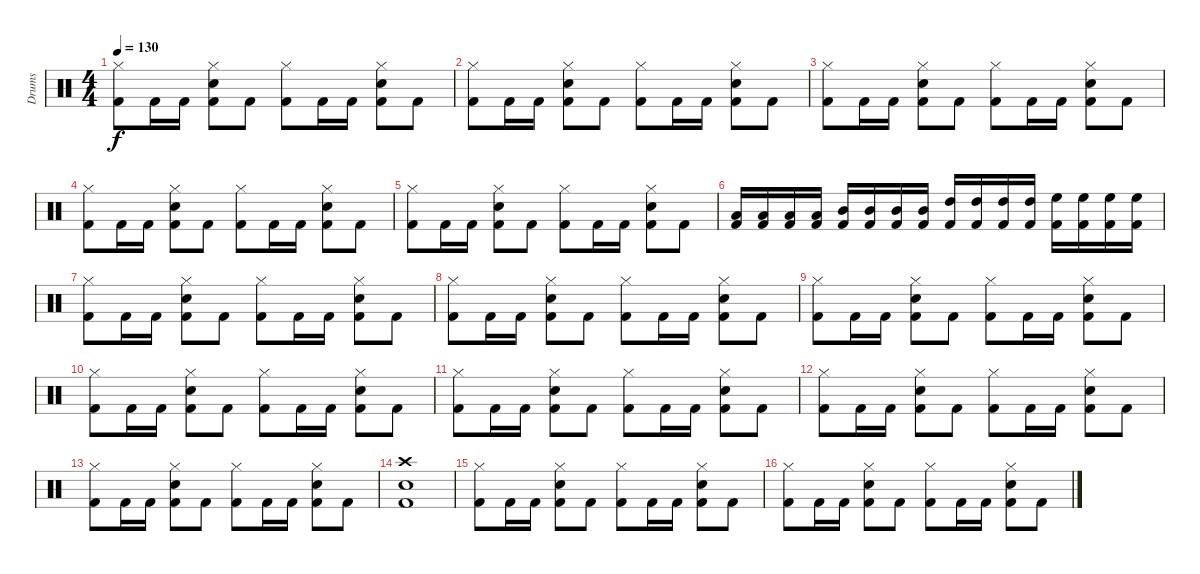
\track ("Drums" "Drums") {instrument percussion}
\staff {score}
\articulation defaults
\ts (4 4)
\tempo 130
\clef neutral
\ks c
("Hi-Hat (closed)" "Kick (hit) 2").8{dy f} "Kick (hit) 2".16 "Kick (hit) 2".16 ("Electric Snare (hit)" "Hi-Hat (closed)" "Kick (hit) 2").8 "Kick (hit) 2".8 ("Hi-Hat (closed)" "Kick (hit) 2").8 "Kick (hit) 2".16 "Kick (hit) 2".16 ("Electric Snare (hit)" "Hi-Hat (closed)" "Kick (hit) 2").8 "Kick (hit) 2".8 |
("Hi-Hat (closed)" "Kick (hit) 2").8 "Kick (hit) 2".16 "Kick (hit) 2".16 ("Electric Snare (hit)" "Hi-Hat (closed)" "Kick (hit) 2").8 "Kick (hit) 2".8 ("Hi-Hat (closed)" "Kick (hit) 2").8 "Kick (hit) 2".16 "Kick (hit) 2".16 ("Electric Snare (hit)" "Hi-Hat (closed)" "Kick (hit) 2").8 "Kick (hit) 2".8 |
("Hi-Hat (closed)" "Kick (hit) 2").8 "Kick (hit) 2".16 "Kick (hit) 2".16 ("Electric Snare (hit)" "Hi-Hat (closed)" "Kick (hit) 2").8 "Kick (hit) 2".8 ("Hi-Hat (closed)" "Kick (hit) 2").8 "Kick (hit) 2".16 "Kick (hit) 2".16 ("Electric Snare (hit)" "Hi-Hat (closed)" "Kick (hit) 2").8 "Kick (hit) 2".8 |
("Hi-Hat (closed)" "Kick (hit) 2").8 "Kick (hit) 2".16 "Kick (hit) 2".16 ("Electric Snare (hit)" "Hi-Hat (closed)" "Kick (hit) 2").8 "Kick (hit) 2".8 ("Hi-Hat (closed)" "Kick (hit) 2").8 "Kick (hit) 2".16 "Kick (hit) 2".16 ("Electric Snare (hit)" "Hi-Hat (closed)" "Kick (hit) 2").8 "Kick (hit) 2".8 |
("Hi-Hat (closed)" "Kick (hit) 2").8 "Kick (hit) 2".16 "Kick (hit) 2".16 ("Electric Snare (hit)" "Hi-Hat (closed)" "Kick (hit) 2").8 "Kick (hit) 2".8 ("Hi-Hat (closed)" "Kick (hit) 2").8 "Kick (hit) 2".16 "Kick (hit) 2".16 ("Electric Snare (hit)" "Hi-Hat (closed)" "Kick (hit) 2").8 "Kick (hit) 2".8 |
("Low Tom (hit)" "Kick (hit) 2").16 ("Low Tom (hit)" "Kick (hit) 2").16 ("Low Tom (hit)" "Kick (hit) 2").16 ("Low Tom (hit)" "Kick (hit) 2").16 ("Mid Tom (hit)" "Kick (hit) 2").16 ("Mid Tom (hit)" "Kick (hit) 2").16 ("Mid Tom (hit)" "Kick (hit) 2").16 ("Mid Tom (hit)" "Kick (hit) 2").16 ("High Tom (hit)" "Kick (hit) 2").16 ("High Tom (hit)" "Kick (hit) 2").16 ("High Tom (hit)" "Kick (hit) 2").16 ("High Tom (hit)" "Kick (hit) 2").16 ("High Floor Tom (hit)" "Kick (hit) 2").16 ("High Floor Tom (hit)" "Kick (hit) 2").16 ("High Floor Tom (hit)" "Kick (hit) 2").16 ("High Floor Tom (hit)" "Kick (hit) 2").16 |
("Hi-Hat (closed)" "Kick (hit) 2").8 "Kick (hit) 2".16 "Kick (hit) 2".16 ("Electric Snare (hit)" "Hi-Hat (closed)" "Kick (hit) 2").8 "Kick (hit) 2".8 ("Hi-Hat (closed)" "Kick (hit) 2").8 "Kick (hit) 2".16 "Kick (hit) 2".16 ("Electric Snare (hit)" "Hi-Hat (closed)" "Kick (hit) 2").8 "Kick (hit) 2".8 |
("Hi-Hat (closed)" "Kick (hit) 2").8 "Kick (hit) 2".16 "Kick (hit) 2".16 ("Electric Snare (hit)" "Hi-Hat (closed)" "Kick (hit) 2").8 "Kick (hit) 2".8 ("Hi-Hat (closed)" "Kick (hit) 2").8 "Kick (hit) 2".16 "Kick (hit) 2".16 ("Electric Snare (hit)" "Hi-Hat (closed)" "Kick (hit) 2").8 "Kick (hit) 2".8 |
("Hi-Hat (closed)" "Kick (hit) 2").8 "Kick (hit) 2".16 "Kick (hit) 2".16 ("Electric Snare (hit)" "Hi-Hat (closed)" "Kick (hit) 2").8 "Kick (hit) 2".8 ("Hi-Hat (closed)" "Kick (hit) 2").8 "Kick (hit) 2".16 "Kick (hit) 2".16 ("Electric Snare (hit)" "Hi-Hat (closed)" "Kick (hit) 2").8 "Kick (hit) 2".8 |
("Hi-Hat (closed)" "Kick (hit) 2").8 "Kick (hit) 2".16 "Kick (hit) 2".16 ("Electric Snare (hit)" "Hi-Hat (closed)" "Kick (hit) 2").8 "Kick (hit) 2".8 ("Hi-Hat (closed)" "Kick (hit) 2").8 "Kick (hit) 2".16 "Kick (hit) 2".16 ("Electric Snare (hit)" "Hi-Hat (closed)" "Kick (hit) 2").8 "Kick (hit) 2".8 |
("Hi-Hat (closed)" "Kick (hit) 2").8 "Kick (hit) 2".16 "Kick (hit) 2".16 ("Electric Snare (hit)" "Hi-Hat (closed)" "Kick (hit) 2").8 "Kick (hit) 2".8 ("Hi-Hat (closed)" "Kick (hit) 2").8 "Kick (hit) 2".16 "Kick (hit) 2".16 ("Electric Snare (hit)" "Hi-Hat (closed)" "Kick (hit) 2").8 "Kick (hit) 2".8 |
("Hi-Hat (closed)" "Kick (hit) 2").8 "Kick (hit) 2".16 "Kick (hit) 2".16 ("Electric Snare (hit)" "Hi-Hat (closed)" "Kick (hit) 2").8 "Kick (hit) 2".8 ("Hi-Hat (closed)" "Kick (hit) 2").8 "Kick (hit) 2".16 "Kick (hit) 2".16 ("Electric Snare (hit)" "Hi-Hat (closed)" "Kick (hit) 2").8 "Kick (hit) 2".8 |
("Hi-Hat (closed)" "Kick (hit) 2").8 "Kick (hit) 2".16 "Kick (hit) 2".16 ("Electric Snare (hit)" "Hi-Hat (closed)" "Kick (hit) 2").8 "Kick (hit) 2".8 ("Hi-Hat (closed)" "Kick (hit) 2").8 "Kick (hit) 2".16 "Kick (hit) 2".16 ("Electric Snare (hit)" "Hi-Hat (closed)" "Kick (hit) 2").8 "Kick (hit) 2".8 |
("Crash high (hit)" "Electric Snare (hit)" "Kick (hit) 2").1 |
("Hi-Hat (closed)" "Kick (hit) 2").8 "Kick (hit) 2".16 "Kick (hit) 2".16 ("Electric Snare (hit)" "Hi-Hat (closed)" "Kick (hit) 2").8 "Kick (hit) 2".8 ("Hi-Hat (closed)" "Kick (hit) 2").8 "Kick (hit) 2".16 "Kick (hit) 2".16 ("Electric Snare (hit)" "Hi-Hat (closed)" "Kick (hit) 2").8 "Kick (hit) 2".8 |
("Hi-Hat (closed)" "Kick (hit) 2").8 "Kick (hit) 2".16 "Kick (hit) 2".16 ("Electric Snare (hit)" "Hi-Hat (closed)" "Kick (hit) 2").8 "Kick (hit) 2".8 ("Hi-Hat (closed)" "Kick (hit) 2").8 "Kick (hit) 2".16 "Kick (hit) 2".16 ("Electric Snare (hit)" "Hi-Hat (closed)" "Kick (hit) 2").8 "Kick (hit) 2".8
